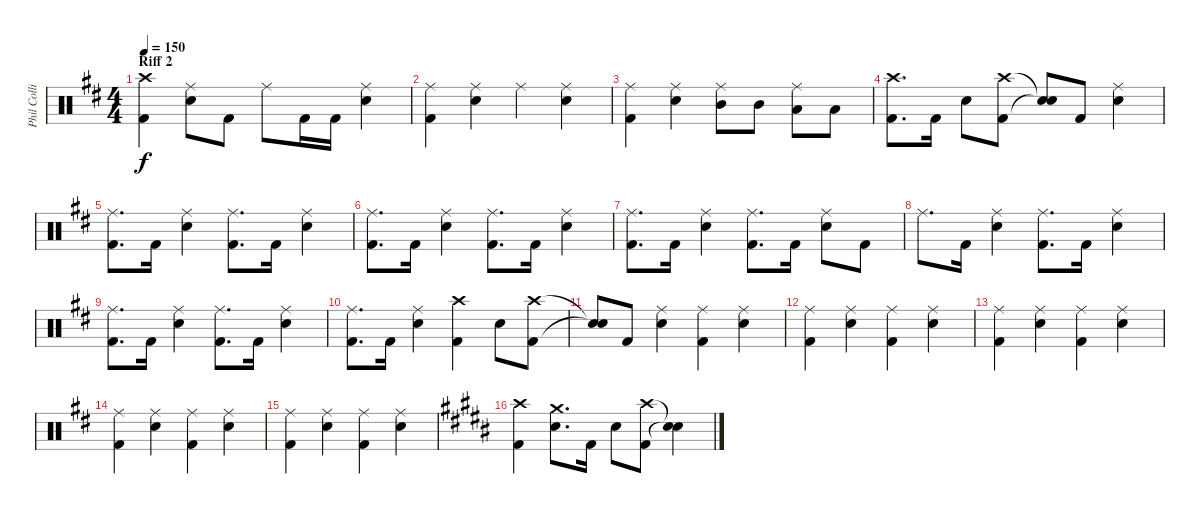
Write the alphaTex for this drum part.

\track ("Phil Collins [Drums]" "Phil Colli") {instrument percussion}
\staff {score}
\articulation defaults
\ts (4 4)
\section ("" "Riff 2")
\tempo 150
\clef neutral
\ks d
("Crash high (hit)" "Kick (hit) 2").4{dy f} ("Ride (middle)" "Electric Snare (hit)").8 "Kick (hit) 2".8 "Ride (middle)".8 "Kick (hit) 2".16 "Kick (hit) 2".16 ("Ride (middle)" "Electric Snare (hit)").4 |
("Ride (middle)" "Kick (hit) 2").4 ("Ride (middle)" "Electric Snare (hit)").4 "Ride (middle)".4 ("Ride (middle)" "Electric Snare (hit)").4 |
("Ride (middle)" "Kick (hit) 2").4 ("Ride (middle)" "Electric Snare (hit)").4 ("Ride (middle)" "Mid Tom (hit)").8 "Mid Tom (hit)".8 ("Ride (middle)" "Low Tom (hit)").8 "Low Tom (hit)".8 |
("Crash high (hit)" "Kick (hit) 2").8{d} "Kick (hit) 2".16 "Electric Snare (hit)".8 ("Crash high (hit)" "Kick (hit) 2").8 ("Snare (hit)"{t} "Snare (hit)"{t}).8 "Kick (hit) 2".8 ("Ride (middle)" "Electric Snare (hit)").4 |
("Ride (middle)" "Kick (hit) 2").8{d} "Kick (hit) 2".16 ("Ride (middle)" "Electric Snare (hit)").4 ("Ride (middle)" "Kick (hit) 2").8{d} "Kick (hit) 2".16 ("Ride (middle)" "Electric Snare (hit)").4 |
("Ride (middle)" "Kick (hit) 2").8{d} "Kick (hit) 2".16 ("Ride (middle)" "Electric Snare (hit)").4 ("Ride (middle)" "Kick (hit) 2").8{d} "Kick (hit) 2".16 ("Ride (middle)" "Electric Snare (hit)").4 |
("Ride (middle)" "Kick (hit) 2").8{d} "Kick (hit) 2".16 ("Ride (middle)" "Electric Snare (hit)").4 ("Ride (middle)" "Kick (hit) 2").8{d} "Kick (hit) 2".16 ("Ride (middle)" "Electric Snare (hit)").8 "Kick (hit) 2".8 |
"Ride (middle)".8{d} "Kick (hit) 2".16 ("Ride (middle)" "Electric Snare (hit)").4 ("Ride (middle)" "Kick (hit) 2").8{d} "Kick (hit) 2".16 ("Ride (middle)" "Electric Snare (hit)").4 |
("Ride (middle)" "Kick (hit) 2").8{d} "Kick (hit) 2".16 ("Ride (middle)" "Electric Snare (hit)").4 ("Ride (middle)" "Kick (hit) 2").8{d} "Kick (hit) 2".16 ("Ride (middle)" "Electric Snare (hit)").4 |
("Ride (middle)" "Kick (hit) 2").8{d} "Kick (hit) 2".16 ("Ride (middle)" "Electric Snare (hit)").4 ("Crash high (hit)" "Kick (hit) 2").4 "Electric Snare (hit)".8 ("Crash high (hit)" "Kick (hit) 2").8 |
("Snare (hit)"{t} "Snare (hit)"{t}).8 "Kick (hit) 2".8 ("Ride (middle)" "Electric Snare (hit)").4 ("Ride (middle)" "Kick (hit) 2").4 ("Ride (middle)" "Electric Snare (hit)").4 |
("Ride (middle)" "Kick (hit) 2").4 ("Ride (middle)" "Electric Snare (hit)").4 ("Ride (middle)" "Kick (hit) 2").4 ("Ride (middle)" "Electric Snare (hit)").4 |
("Ride (middle)" "Kick (hit) 2").4 ("Ride (middle)" "Electric Snare (hit)").4 ("Ride (middle)" "Kick (hit) 2").4 ("Ride (middle)" "Electric Snare (hit)").4 |
("Ride (middle)" "Kick (hit) 2").4 ("Ride (middle)" "Electric Snare (hit)").4 ("Ride (middle)" "Kick (hit) 2").4 ("Ride (middle)" "Electric Snare (hit)").4 |
("Ride (middle)" "Kick (hit) 2").4 ("Ride (middle)" "Electric Snare (hit)").4 ("Ride (middle)" "Kick (hit) 2").4 ("Ride (middle)" "Electric Snare (hit)").4 |
\ks b
("Crash high (hit)" "Kick (hit) 2").4 ("Crash medium (hit)" "Electric Snare (hit)").8{d} "Kick (hit) 2".16 "Electric Snare (hit)".8 ("Crash high (hit)" "Kick (hit) 2").8 ("Snare (hit)"{t} "Snare (hit)"{t}).4
